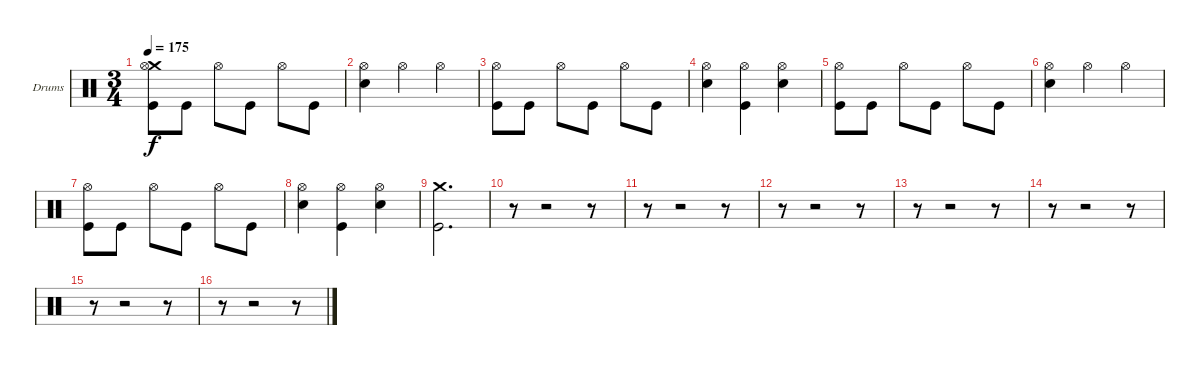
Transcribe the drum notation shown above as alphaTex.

\bracketExtendMode groupsimilarinstruments
\firstSystemTrackNameOrientation horizontal
\otherSystemsTrackNameOrientation horizontal
\track ("Drums" "Drums") {instrument percussion}
\staff {score}
\articulation defaults
\ts (3 4)
\tempo 175
\clef neutral
\ks c
("Crash medium (hit)" "Hi-Hat (open)" "Kick (hit)").8{dy f} "Kick (hit)".8 "Hi-Hat (open)".8 "Kick (hit)".8 "Hi-Hat (open)".8 "Kick (hit)".8 |
("Hi-Hat (open)" "Snare (hit) 2").4 "Hi-Hat (open)".4 "Hi-Hat (open)".4 |
("Hi-Hat (open)" "Kick (hit)").8 "Kick (hit)".8 "Hi-Hat (open)".8 "Kick (hit)".8 "Hi-Hat (open)".8 "Kick (hit)".8 |
("Hi-Hat (open)" "Snare (hit) 2").4 ("Hi-Hat (open)" "Kick (hit)").4 ("Hi-Hat (open)" "Snare (hit) 2").4 |
("Hi-Hat (open)" "Kick (hit)").8 "Kick (hit)".8 "Hi-Hat (open)".8 "Kick (hit)".8 "Hi-Hat (open)".8 "Kick (hit)".8 |
("Hi-Hat (open)" "Snare (hit) 2").4 "Hi-Hat (open)".4 "Hi-Hat (open)".4 |
("Hi-Hat (open)" "Kick (hit)").8 "Kick (hit)".8 "Hi-Hat (open)".8 "Kick (hit)".8 "Hi-Hat (open)".8 "Kick (hit)".8 |
("Hi-Hat (open)" "Snare (hit) 2").4 ("Hi-Hat (open)" "Kick (hit)").4 ("Hi-Hat (open)" "Snare (hit) 2").4 |
("Crash medium (hit)" "Kick (hit)").2{d} |
r.8 r.2 r.8 |
r.8 r.2 r.8 |
r.8 r.2 r.8 |
r.8 r.2 r.8 |
r.8 r.2 r.8 |
r.8 r.2 r.8 |
r.8 r.2 r.8
